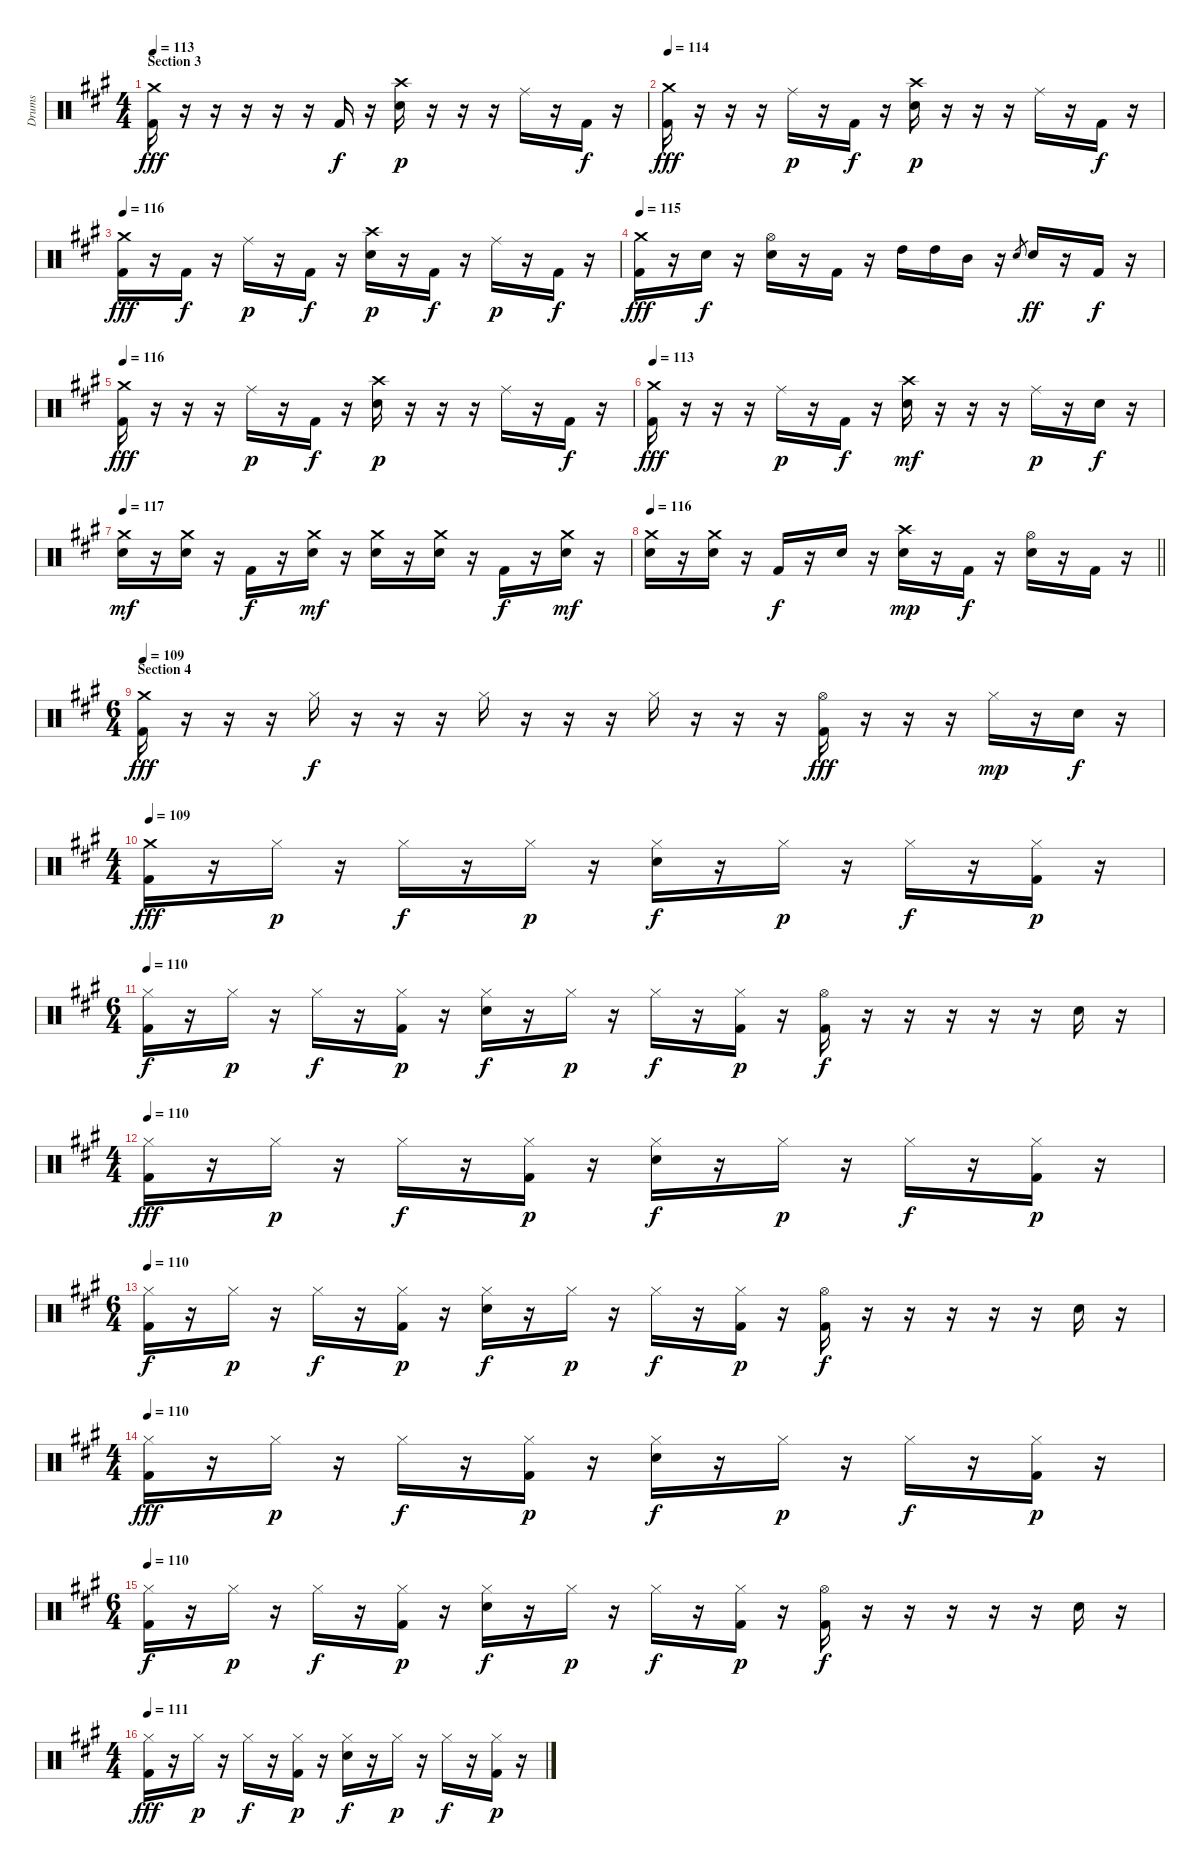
\track ("Drums" "Drums") {instrument percussion}
\staff {score}
\articulation defaults
\ts (4 4)
\section ("" "Section 3")
\tempo 113
\clef neutral
\ks f#minor
("Crash medium (hit)" "Kick (hit) 2").16{dy fff} r.16 r.16 r.16 r.16 r.16 "Kick (hit) 2".16{dy f} r.16 ("Crash high (hit)" "Electric Snare (hit)").16{dy p} r.16 r.16 r.16 "Ride (middle)".16 r.16 "Kick (hit) 2".16{dy f} r.16 |
\tempo 114
("Crash medium (hit)" "Kick (hit) 2").16{dy fff} r.16 r.16 r.16 "Ride (middle)".16{dy p} r.16 "Kick (hit) 2".16{dy f} r.16 ("Crash high (hit)" "Electric Snare (hit)").16{dy p} r.16 r.16 r.16 "Ride (middle)".16 r.16 "Kick (hit) 2".16{dy f} r.16 |
\tempo 116
("Crash medium (hit)" "Kick (hit) 2").16{dy fff} r.16 "Kick (hit) 2".16{dy f} r.16 "Ride (middle)".16{dy p} r.16 "Kick (hit) 2".16{dy f} r.16 ("Crash high (hit)" "Electric Snare (hit)").16{dy p} r.16 "Kick (hit) 2".16{dy f} r.16 "Ride (middle)".16{dy p} r.16 "Kick (hit) 2".16{dy f} r.16 |
\tempo 115
("Crash medium (hit)" "Kick (hit) 2").16{dy fff} r.16 "Electric Snare (hit)".16{dy f} r.16 ("Hi-Hat (open)" "Electric Snare (hit)").16 r.16 "Kick (hit) 2".16 r.16 "High Tom (hit)".16 "High Tom (hit)".16 "Mid Tom (hit)".16 r.16 "Electric Snare (hit)".8{gr} "Electric Snare (hit)".16{dy ff} r.16 "Kick (hit) 2".16{dy f} r.16 |
\tempo 116
("Crash medium (hit)" "Kick (hit) 2").16{dy fff} r.16 r.16 r.16 "Ride (middle)".16{dy p} r.16 "Kick (hit) 2".16{dy f} r.16 ("Crash high (hit)" "Electric Snare (hit)").16{dy p} r.16 r.16 r.16 "Ride (middle)".16 r.16 "Kick (hit) 2".16{dy f} r.16 |
\tempo 113
("Crash medium (hit)" "Kick (hit) 2").16{dy fff} r.16 r.16 r.16 "Ride (middle)".16{dy p} r.16 "Kick (hit) 2".16{dy f} r.16 ("Crash high (hit)" "Electric Snare (hit)").16{dy mf} r.16 r.16 r.16 "Ride (middle)".16{dy p} r.16 "Electric Snare (hit)".16{dy f} r.16 |
\tempo 117
("Crash medium (hit)" "Electric Snare (hit)").16{dy mf} r.16 ("Crash medium (hit)" "Electric Snare (hit)").16 r.16 "Kick (hit) 2".16{dy f} r.16 ("Crash medium (hit)" "Electric Snare (hit)").16{dy mf} r.16 ("Crash medium (hit)" "Electric Snare (hit)").16 r.16 ("Crash medium (hit)" "Electric Snare (hit)").16 r.16 "Kick (hit) 2".16{dy f} r.16 ("Crash medium (hit)" "Electric Snare (hit)").16{dy mf} r.16 |
\tempo 116
\barLineRight lightlight
("Crash medium (hit)" "Electric Snare (hit)").16 r.16 ("Crash medium (hit)" "Electric Snare (hit)").16 r.16 "Kick (hit) 2".16{dy f} r.16 "Electric Snare (hit)".16 r.16 ("Crash high (hit)" "Electric Snare (hit)").16{dy mp} r.16 "Kick (hit) 2".16{dy f} r.16 ("Hi-Hat (open)" "Electric Snare (hit)").16 r.16 "Kick (hit) 2".16 r.16 |
\ts (6 4)
\section ("" "Section 4")
\tempo 109
("Crash medium (hit)" "Kick (hit) 2").16{dy fff} r.16 r.16 r.16 "Hi-Hat (closed)".16{dy f} r.16 r.16 r.16 "Hi-Hat (closed)".16 r.16 r.16 r.16 "Hi-Hat (closed)".16 r.16 r.16 r.16 ("Hi-Hat (open)" "Kick (hit) 2").16{dy fff} r.16 r.16 r.16 "Hi-Hat (closed)".16{dy mp} r.16 "Electric Snare (hit)".16{dy f} r.16 |
\ts (4 4)
\tempo 109
("Crash medium (hit)" "Kick (hit) 2").16{dy fff} r.16 "Hi-Hat (closed)".16{dy p} r.16 "Hi-Hat (closed)".16{dy f} r.16 "Hi-Hat (closed)".16{dy p} r.16 ("Hi-Hat (closed)" "Electric Snare (hit)").16{dy f} r.16 "Hi-Hat (closed)".16{dy p} r.16 "Hi-Hat (closed)".16{dy f} r.16 ("Hi-Hat (closed)" "Kick (hit) 2").16{dy p} r.16 |
\ts (6 4)
\tempo 110
("Hi-Hat (closed)" "Kick (hit) 2").16{dy f} r.16 "Hi-Hat (closed)".16{dy p} r.16 "Hi-Hat (closed)".16{dy f} r.16 ("Hi-Hat (closed)" "Kick (hit) 2").16{dy p} r.16 ("Hi-Hat (closed)" "Electric Snare (hit)").16{dy f} r.16 "Hi-Hat (closed)".16{dy p} r.16 "Hi-Hat (closed)".16{dy f} r.16 ("Hi-Hat (closed)" "Kick (hit) 2").16{dy p} r.16 ("Hi-Hat (open)" "Kick (hit) 2").16{dy f} r.16 r.16 r.16 r.16 r.16 "Electric Snare (hit)".16 r.16 |
\ts (4 4)
\tempo 110
("Hi-Hat (closed)" "Kick (hit) 2").16{dy fff} r.16 "Hi-Hat (closed)".16{dy p} r.16 "Hi-Hat (closed)".16{dy f} r.16 ("Hi-Hat (closed)" "Kick (hit) 2").16{dy p} r.16 ("Hi-Hat (closed)" "Electric Snare (hit)").16{dy f} r.16 "Hi-Hat (closed)".16{dy p} r.16 "Hi-Hat (closed)".16{dy f} r.16 ("Hi-Hat (closed)" "Kick (hit) 2").16{dy p} r.16 |
\ts (6 4)
\tempo 110
("Hi-Hat (closed)" "Kick (hit) 2").16{dy f} r.16 "Hi-Hat (closed)".16{dy p} r.16 "Hi-Hat (closed)".16{dy f} r.16 ("Hi-Hat (closed)" "Kick (hit) 2").16{dy p} r.16 ("Hi-Hat (closed)" "Electric Snare (hit)").16{dy f} r.16 "Hi-Hat (closed)".16{dy p} r.16 "Hi-Hat (closed)".16{dy f} r.16 ("Hi-Hat (closed)" "Kick (hit) 2").16{dy p} r.16 ("Hi-Hat (open)" "Kick (hit) 2").16{dy f} r.16 r.16 r.16 r.16 r.16 "Electric Snare (hit)".16 r.16 |
\ts (4 4)
\tempo 110
("Hi-Hat (closed)" "Kick (hit) 2").16{dy fff} r.16 "Hi-Hat (closed)".16{dy p} r.16 "Hi-Hat (closed)".16{dy f} r.16 ("Hi-Hat (closed)" "Kick (hit) 2").16{dy p} r.16 ("Hi-Hat (closed)" "Electric Snare (hit)").16{dy f} r.16 "Hi-Hat (closed)".16{dy p} r.16 "Hi-Hat (closed)".16{dy f} r.16 ("Hi-Hat (closed)" "Kick (hit) 2").16{dy p} r.16 |
\ts (6 4)
\tempo 110
("Hi-Hat (closed)" "Kick (hit) 2").16{dy f} r.16 "Hi-Hat (closed)".16{dy p} r.16 "Hi-Hat (closed)".16{dy f} r.16 ("Hi-Hat (closed)" "Kick (hit) 2").16{dy p} r.16 ("Hi-Hat (closed)" "Electric Snare (hit)").16{dy f} r.16 "Hi-Hat (closed)".16{dy p} r.16 "Hi-Hat (closed)".16{dy f} r.16 ("Hi-Hat (closed)" "Kick (hit) 2").16{dy p} r.16 ("Hi-Hat (open)" "Kick (hit) 2").16{dy f} r.16 r.16 r.16 r.16 r.16 "Electric Snare (hit)".16 r.16 |
\ts (4 4)
\tempo 111
("Hi-Hat (closed)" "Kick (hit) 2").16{dy fff} r.16 "Hi-Hat (closed)".16{dy p} r.16 "Hi-Hat (closed)".16{dy f} r.16 ("Hi-Hat (closed)" "Kick (hit) 2").16{dy p} r.16 ("Hi-Hat (closed)" "Electric Snare (hit)").16{dy f} r.16 "Hi-Hat (closed)".16{dy p} r.16 "Hi-Hat (closed)".16{dy f} r.16 ("Hi-Hat (closed)" "Kick (hit) 2").16{dy p} r.16
